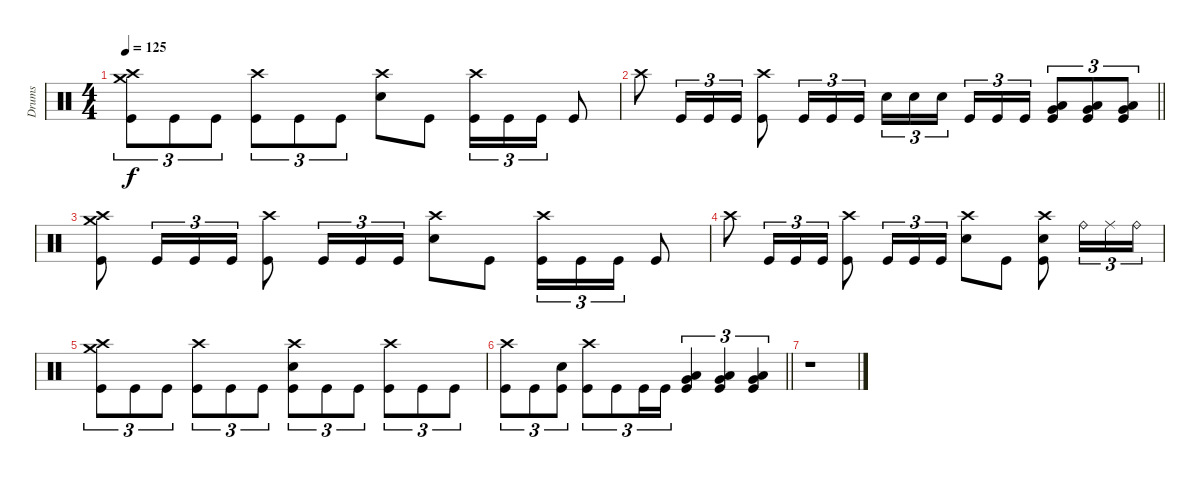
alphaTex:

\track ("Drums" "Drums") {instrument percussion}
\staff
\articulation defaults
\ts (4 4)
\tempo 125
\clef neutral
\ks c
("Crash high (hit)" "Crash medium (hit)" "Kick (hit)").8{tu (3 2) dy f} "Kick (hit)".8{tu (3 2)} "Kick (hit)".8{tu (3 2)} ("Crash high (hit)" "Kick (hit)").8{tu (3 2)} "Kick (hit)".8{tu (3 2)} "Kick (hit)".8{tu (3 2)} ("Crash high (hit)" "Electric Snare (hit)").8 "Kick (hit)".8 ("Crash high (hit)" "Kick (hit)").16{tu (3 2)} "Kick (hit)".16{tu (3 2)} "Kick (hit)".16{tu (3 2)} "Kick (hit)".8 |
\barLineRight lightlight "Crash high (hit)".8 "Kick (hit)".16{tu (3 2)} "Kick (hit)".16{tu (3 2)} "Kick (hit)".16{tu (3 2)}
("Crash high (hit)" "Kick (hit)").8 "Kick (hit)".16{tu (3 2)} "Kick (hit)".16{tu (3 2)} "Kick (hit)".16{tu (3 2)} "Electric Snare (hit)".16{tu (3 2)} "Electric Snare (hit)".16{tu (3 2)} "Electric Snare (hit)".16{tu (3 2) beam splitsecondary} "Kick (hit)".16{tu (3 2)} "Kick (hit)".16{tu (3 2)} "Kick (hit)".16{tu (3 2)} ("Very Low Tom (hit)" "Low Floor Tom (hit)" "Kick (hit)").8{tu (3 2)} ("Very Low Tom (hit)" "Low Floor Tom (hit)" "Kick (hit)").8{tu (3 2)} ("Very Low Tom (hit)" "Low Floor Tom (hit)" "Kick (hit)").8{tu (3 2)} |
("Crash high (hit)" "Crash medium (hit)" "Kick (hit)").8 "Kick (hit)".16{tu (3 2)} "Kick (hit)".16{tu (3 2)} "Kick (hit)".16{tu (3 2)} ("Crash high (hit)" "Kick (hit)").8 "Kick (hit)".16{tu (3 2)} "Kick (hit)".16{tu (3 2)} "Kick (hit)".16{tu (3 2)} ("Crash high (hit)" "Electric Snare (hit)").8 "Kick (hit)".8 ("Crash high (hit)" "Kick (hit)").16{tu (3 2)} "Kick (hit)".16{tu (3 2)} "Kick (hit)".16{tu (3 2)} "Kick (hit)".8 |
"Crash high (hit)".8 "Kick (hit)".16{tu (3 2)} "Kick (hit)".16{tu (3 2)} "Kick (hit)".16{tu (3 2)} ("Crash high (hit)" "Kick (hit)").8 "Kick (hit)".16{tu (3 2)} "Kick (hit)".16{tu (3 2)} "Kick (hit)".16{tu (3 2)} ("Crash high (hit)" "Electric Snare (hit)").8 "Kick (hit)".8 ("Crash high (hit)" "Electric Snare (hit)" "Kick (hit)").8 "Ride (bell)".16{tu (3 2)} "Ride (middle)".16{tu (3 2)} "Ride (bell)".16{tu (3 2)} |
("Crash high (hit)" "Crash medium (hit)" "Kick (hit)").8{tu (3 2)} "Kick (hit)".8{tu (3 2)} "Kick (hit)".8{tu (3 2)} ("Crash high (hit)" "Kick (hit)").8{tu (3 2)} "Kick (hit)".8{tu (3 2)} "Kick (hit)".8{tu (3 2)} ("Crash high (hit)" "Electric Snare (hit)" "Kick (hit)").8{tu (3 2)} "Kick (hit)".8{tu (3 2)} "Kick (hit)".8{tu (3 2)} ("Crash high (hit)" "Kick (hit)").8{tu (3 2)} "Kick (hit)".8{tu (3 2)} "Kick (hit)".8{tu (3 2)} |
\barLineRight lightlight
("Crash high (hit)" "Kick (hit)").8{tu (3 2)} "Kick (hit)".8{tu (3 2)} ("Electric Snare (hit)" "Kick (hit)").8{tu (3 2)} ("Crash high (hit)" "Kick (hit)").8{tu (3 2)} "Kick (hit)".8{tu (3 2)} "Kick (hit)".16{tu (3 2)} "Kick (hit)".16{tu (3 2)} ("Very Low Tom (hit)" "Low Floor Tom (hit)" "Kick (hit)").4{tu (3 2)} ("Very Low Tom (hit)" "Low Floor Tom (hit)" "Kick (hit)").4{tu (3 2)} ("Very Low Tom (hit)" "Low Floor Tom (hit)" "Kick (hit)").4{tu (3 2)} |
r.1
